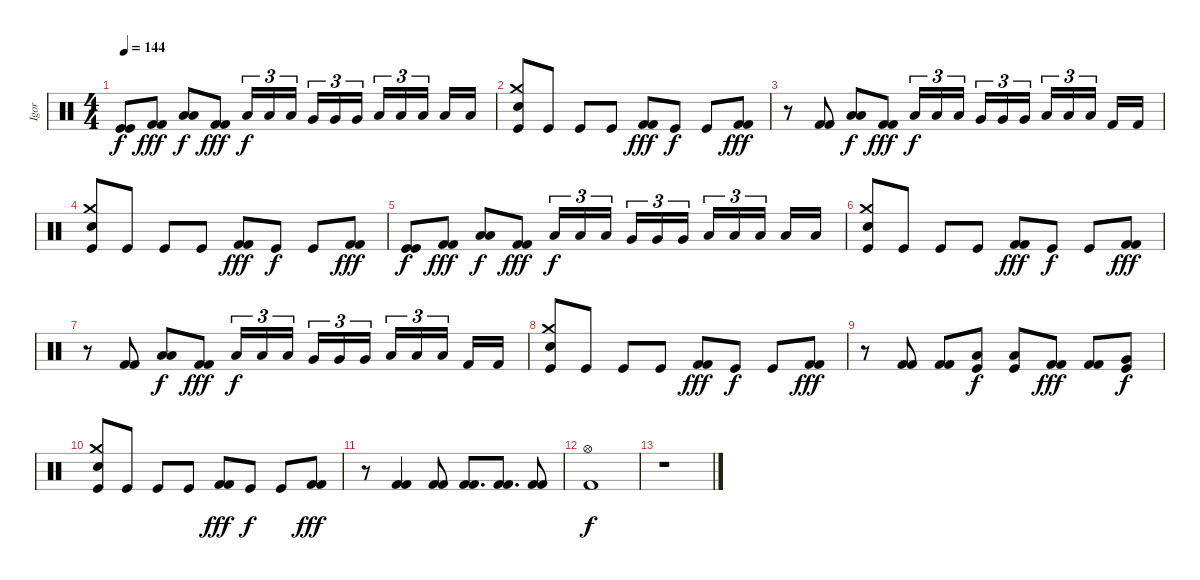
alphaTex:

\track ("Igor" "Igor") {instrument percussion}
\staff {score}
\articulation defaults
\ts (4 4)
\tempo 144
\clef neutral
\ks c
("Kick (hit)" "Kick (hit)").8{dy f} ("Kick (hit) 2" "Kick (hit) 2").8{dy fff} ("Low Floor Tom (hit)" "Low Floor Tom (hit)").8{dy f} ("Kick (hit) 2" "Kick (hit) 2").8{dy fff} "Low Tom (hit)".16{tu (3 2) dy f} "Low Tom (hit)".16{tu (3 2)} "Low Tom (hit)".16{tu (3 2)} "Very Low Tom (hit)".16{tu (3 2)} "Very Low Tom (hit)".16{tu (3 2)} "Very Low Tom (hit)".16{tu (3 2)} "Low Floor Tom (hit)".16{tu (3 2)} "Low Floor Tom (hit)".16{tu (3 2)} "Low Floor Tom (hit)".16{tu (3 2)} "Low Floor Tom (hit)".16 "Low Floor Tom (hit)".16 |
("Crash medium (hit)" "Kick (hit)" "Snare (hit) 2").8 "Kick (hit)".8 "Kick (hit)".8 "Kick (hit)".8 ("Kick (hit) 2" "Kick (hit) 2").8{dy fff} "Kick (hit)".8{dy f} "Kick (hit)".8 ("Kick (hit) 2" "Kick (hit) 2").8{dy fff} |
r.8 ("Kick (hit) 2" "Kick (hit) 2").8 ("Low Floor Tom (hit)" "Low Floor Tom (hit)").8{dy f} ("Kick (hit) 2" "Kick (hit) 2").8{dy fff} "Low Tom (hit)".16{tu (3 2) dy f} "Low Tom (hit)".16{tu (3 2)} "Low Tom (hit)".16{tu (3 2)} "Very Low Tom (hit)".16{tu (3 2)} "Very Low Tom (hit)".16{tu (3 2)} "Very Low Tom (hit)".16{tu (3 2)} "Low Floor Tom (hit)".16{tu (3 2)} "Low Floor Tom (hit)".16{tu (3 2)} "Low Floor Tom (hit)".16{tu (3 2)} "Kick (hit) 2".16 "Kick (hit) 2".16 |
("Crash medium (hit)" "Kick (hit)" "Snare (hit) 2").8 "Kick (hit)".8 "Kick (hit)".8 "Kick (hit)".8 ("Kick (hit) 2" "Kick (hit) 2").8{dy fff} "Kick (hit)".8{dy f} "Kick (hit)".8 ("Kick (hit) 2" "Kick (hit) 2").8{dy fff} |
("Kick (hit)" "Kick (hit)").8{dy f} ("Kick (hit) 2" "Kick (hit) 2").8{dy fff} ("Low Floor Tom (hit)" "Low Floor Tom (hit)").8{dy f} ("Kick (hit) 2" "Kick (hit) 2").8{dy fff} "Low Tom (hit)".16{tu (3 2) dy f} "Low Tom (hit)".16{tu (3 2)} "Low Tom (hit)".16{tu (3 2)} "Very Low Tom (hit)".16{tu (3 2)} "Very Low Tom (hit)".16{tu (3 2)} "Very Low Tom (hit)".16{tu (3 2)} "Low Floor Tom (hit)".16{tu (3 2)} "Low Floor Tom (hit)".16{tu (3 2)} "Low Floor Tom (hit)".16{tu (3 2)} "Low Floor Tom (hit)".16 "Low Floor Tom (hit)".16 |
("Crash medium (hit)" "Kick (hit)" "Snare (hit) 2").8 "Kick (hit)".8 "Kick (hit)".8 "Kick (hit)".8 ("Kick (hit) 2" "Kick (hit) 2").8{dy fff} "Kick (hit)".8{dy f} "Kick (hit)".8 ("Kick (hit) 2" "Kick (hit) 2").8{dy fff} |
r.8 ("Kick (hit) 2" "Kick (hit) 2").8 ("Low Floor Tom (hit)" "Low Floor Tom (hit)").8{dy f} ("Kick (hit) 2" "Kick (hit) 2").8{dy fff} "Low Tom (hit)".16{tu (3 2) dy f} "Low Tom (hit)".16{tu (3 2)} "Low Tom (hit)".16{tu (3 2)} "Very Low Tom (hit)".16{tu (3 2)} "Very Low Tom (hit)".16{tu (3 2)} "Very Low Tom (hit)".16{tu (3 2)} "Low Floor Tom (hit)".16{tu (3 2)} "Low Floor Tom (hit)".16{tu (3 2)} "Low Floor Tom (hit)".16{tu (3 2)} "Kick (hit) 2".16 "Kick (hit) 2".16 |
("Crash medium (hit)" "Kick (hit)" "Snare (hit) 2").8 "Kick (hit)".8 "Kick (hit)".8 "Kick (hit)".8 ("Kick (hit) 2" "Kick (hit) 2").8{dy fff} "Kick (hit)".8{dy f} "Kick (hit)".8 ("Kick (hit) 2" "Kick (hit) 2").8{dy fff} |
r.8 ("Kick (hit) 2" "Kick (hit) 2").8 ("Kick (hit) 2" "Kick (hit) 2").8 ("Low Tom (hit)" "Kick (hit)").8{dy f} ("Low Tom (hit)" "Kick (hit)").8 ("Kick (hit) 2" "Kick (hit) 2").8{dy fff} ("Kick (hit) 2" "Kick (hit) 2").8 ("Very Low Tom (hit)" "Kick (hit)").8{dy f} |
("Crash medium (hit)" "Kick (hit)" "Snare (hit) 2").8 "Kick (hit)".8 "Kick (hit)".8 "Kick (hit)".8 ("Kick (hit) 2" "Kick (hit) 2").8{dy fff} "Kick (hit)".8{dy f} "Kick (hit)".8 ("Kick (hit) 2" "Kick (hit) 2").8{dy fff} |
r.8 ("Kick (hit) 2" "Kick (hit) 2").4 ("Kick (hit) 2" "Kick (hit) 2").8 ("Kick (hit) 2" "Kick (hit) 2").8{d} ("Kick (hit) 2" "Kick (hit) 2").8{d} ("Kick (hit) 2" "Kick (hit) 2").8 |
("Hi-Hat (open)" "Kick (hit) 2").1{dy f} |
r.1
